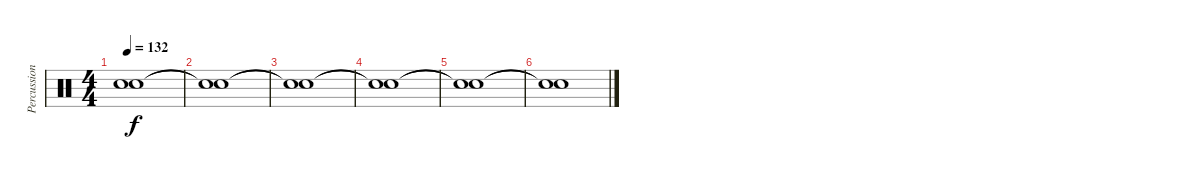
\track ("Percussion" "Percussion") {instrument percussion}
\staff {score}
\articulation defaults
\ts (4 4)
\tempo 132
\clef neutral
\ks c
("Snare (hit)"{t} "Snare (hit)"{t}).1{dy f} |
("Snare (hit)"{t} "Snare (hit)"{t}).1 |
("Snare (hit)"{t} "Snare (hit)"{t}).1 |
("Snare (hit)"{t} "Snare (hit)"{t}).1 |
("Snare (hit)"{t} "Snare (hit)"{t}).1 |
("Snare (hit)"{t} "Snare (hit)"{t}).1
